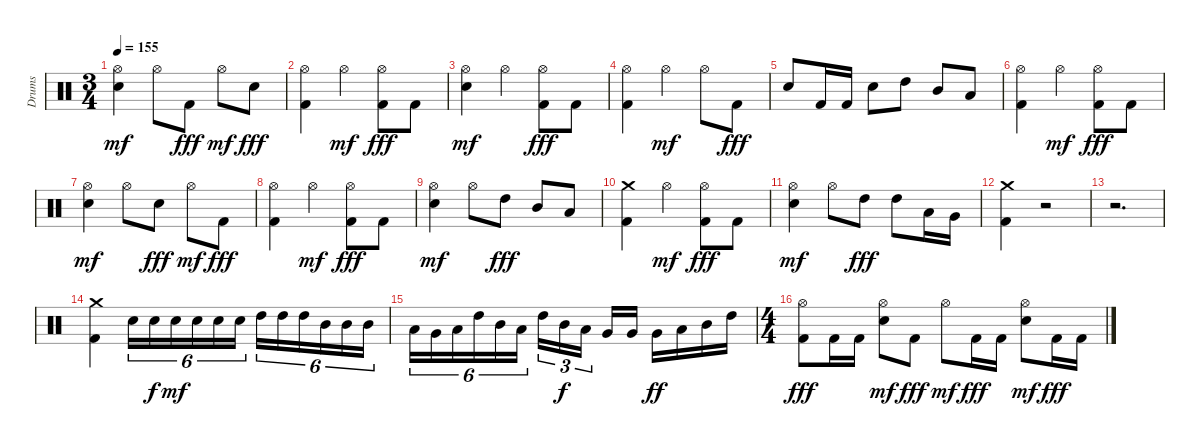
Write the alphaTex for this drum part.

\track ("Drums" "Drums") {instrument percussion}
\staff {score}
\articulation defaults
\ts (3 4)
\tempo 155
\clef neutral
\ks c
("Electric Snare (hit)" "Hi-Hat (open)").4{dy mf} "Hi-Hat (open)".8 "Kick (hit) 2".8{dy fff} "Hi-Hat (open)".8{dy mf} "Electric Snare (hit)".8{dy fff} |
("Hi-Hat (open)" "Kick (hit) 2").4 "Hi-Hat (open)".4{dy mf} ("Hi-Hat (open)" "Kick (hit) 2").8{dy fff} "Kick (hit) 2".8 |
("Electric Snare (hit)" "Hi-Hat (open)").4{dy mf} "Hi-Hat (open)".4 ("Hi-Hat (open)" "Kick (hit) 2").8{dy fff} "Kick (hit) 2".8 |
("Hi-Hat (open)" "Kick (hit) 2").4 "Hi-Hat (open)".4{dy mf} "Hi-Hat (open)".8 "Kick (hit) 2".8{dy fff} |
"Electric Snare (hit)".8 "Kick (hit) 2".16 "Kick (hit) 2".16 "Electric Snare (hit)".8 "High Tom (hit)".8 "Mid Tom (hit)".8 "Low Tom (hit)".8 |
("Hi-Hat (open)" "Kick (hit) 2").4 "Hi-Hat (open)".4{dy mf} ("Hi-Hat (open)" "Kick (hit) 2").8{dy fff} "Kick (hit) 2".8 |
("Electric Snare (hit)" "Hi-Hat (open)").4{dy mf} "Hi-Hat (open)".8 "Electric Snare (hit)".8{dy fff} "Hi-Hat (open)".8{dy mf} "Kick (hit) 2".8{dy fff} |
("Hi-Hat (open)" "Kick (hit) 2").4 "Hi-Hat (open)".4{dy mf} ("Hi-Hat (open)" "Kick (hit) 2").8{dy fff} "Kick (hit) 2".8 |
("Electric Snare (hit)" "Hi-Hat (open)").4{dy mf} "Hi-Hat (open)".8 "High Tom (hit)".8{dy fff} "Mid Tom (hit)".8 "Low Tom (hit)".8 |
("Crash medium (hit)" "Kick (hit) 2").4 "Hi-Hat (open)".4{dy mf} ("Hi-Hat (open)" "Kick (hit) 2").8{dy fff} "Kick (hit) 2".8 |
("Electric Snare (hit)" "Hi-Hat (open)").4{dy mf} "Hi-Hat (open)".8 "High Tom (hit)".8{dy fff} "High Tom (hit)".8 "Low Tom (hit)".16 "Very Low Tom (hit)".16 |
("Crash medium (hit)" "Kick (hit) 2").4 r.2 |
r.2{d} |
("Crash medium (hit)" "Kick (hit) 2").4 "Electric Snare (hit)".16{tu (6 4)} "Electric Snare (hit)".16{tu (6 4) dy f} "Electric Snare (hit)".16{tu (6 4) dy mf} "Electric Snare (hit)".16{tu (6 4)} "Electric Snare (hit)".16{tu (6 4)} "Electric Snare (hit)".16{tu (6 4)} "High Tom (hit)".16{tu (6 4)} "High Tom (hit)".16{tu (6 4)} "High Tom (hit)".16{tu (6 4)} "Mid Tom (hit)".16{tu (6 4)} "Mid Tom (hit)".16{tu (6 4)} "Mid Tom (hit)".16{tu (6 4)} |
"Low Tom (hit)".16{tu (6 4)} "Very Low Tom (hit)".16{tu (6 4)} "Low Floor Tom (hit)".16{tu (6 4)} "High Tom (hit)".16{tu (6 4)} "Mid Tom (hit)".16{tu (6 4)} "Low Tom (hit)".16{tu (6 4)} "High Tom (hit)".16{tu (3 2)} "Mid Tom (hit)".16{tu (3 2) dy f} "Low Tom (hit)".16{tu (3 2)} "Very Low Tom (hit)".16 "Very Low Tom (hit)".16 "Very Low Tom (hit)".16{dy ff} "Low Tom (hit)".16 "Mid Tom (hit)".16 "High Tom (hit)".16 |
\ts (4 4)
("Hi-Hat (open)" "Kick (hit) 2").8{dy fff} "Kick (hit) 2".16 "Kick (hit) 2".16 ("Electric Snare (hit)" "Hi-Hat (open)").8{dy mf} "Kick (hit) 2".8{dy fff} "Hi-Hat (open)".8{dy mf} "Kick (hit) 2".16{dy fff} "Kick (hit) 2".16 ("Electric Snare (hit)" "Hi-Hat (open)").8{dy mf} "Kick (hit) 2".16{dy fff} "Kick (hit) 2".16
